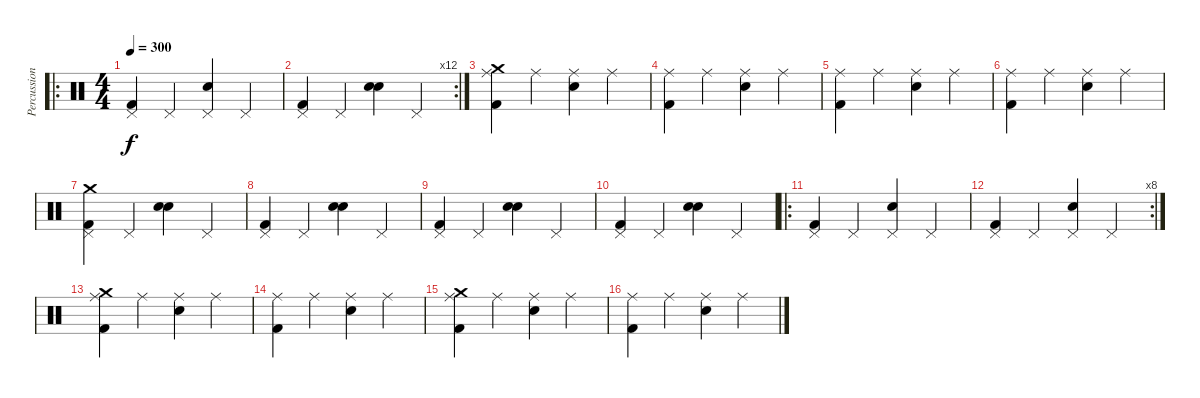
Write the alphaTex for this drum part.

\track ("Percussion" "Percussion") {instrument percussion}
\staff {score}
\articulation defaults
\ro
\ts (4 4)
\tempo 300
\clef neutral
\ks c
("Kick (hit) 2" "Pedal Hi-Hat (hit)").4{dy f} "Pedal Hi-Hat (hit)".4 ("Snare (hit) 2" "Pedal Hi-Hat (hit)").4 "Pedal Hi-Hat (hit)".4 |
\rc 12
("Kick (hit) 2" "Pedal Hi-Hat (hit)").4 "Pedal Hi-Hat (hit)".4 ("Snare (hit) 2" "Electric Snare (hit)").4 "Pedal Hi-Hat (hit)".4 |
("Crash medium (hit)" "Kick (hit) 2" "Ride (middle)").4 "Ride (middle)".4 ("Snare (hit) 2" "Ride (middle)").4 "Ride (middle)".4 |
("Kick (hit) 2" "Ride (middle)").4 "Ride (middle)".4 ("Snare (hit) 2" "Ride (middle)").4 "Ride (middle)".4 |
("Kick (hit) 2" "Ride (middle)").4 "Ride (middle)".4 ("Snare (hit) 2" "Ride (middle)").4 "Ride (middle)".4 |
("Kick (hit) 2" "Ride (middle)").4 "Ride (middle)".4 ("Snare (hit) 2" "Ride (middle)").4 "Ride (middle)".4 |
("Crash medium (hit)" "Kick (hit) 2" "Pedal Hi-Hat (hit)").4 "Pedal Hi-Hat (hit)".4 ("Electric Snare (hit)" "Snare (hit) 2").4 "Pedal Hi-Hat (hit)".4 |
("Kick (hit) 2" "Pedal Hi-Hat (hit)").4 "Pedal Hi-Hat (hit)".4 ("Electric Snare (hit)" "Electric Snare (hit)").4 "Pedal Hi-Hat (hit)".4 |
("Kick (hit) 2" "Pedal Hi-Hat (hit)").4 "Pedal Hi-Hat (hit)".4 ("Electric Snare (hit)" "Electric Snare (hit)").4 "Pedal Hi-Hat (hit)".4 |
("Kick (hit) 2" "Pedal Hi-Hat (hit)").4 "Pedal Hi-Hat (hit)".4 ("Electric Snare (hit)" "Electric Snare (hit)").4 "Pedal Hi-Hat (hit)".4 |
\ro
("Kick (hit) 2" "Pedal Hi-Hat (hit)").4 "Pedal Hi-Hat (hit)".4 ("Electric Snare (hit)" "Pedal Hi-Hat (hit)").4 "Pedal Hi-Hat (hit)".4 |
\rc 8
("Kick (hit) 2" "Pedal Hi-Hat (hit)").4 "Pedal Hi-Hat (hit)".4 ("Electric Snare (hit)" "Pedal Hi-Hat (hit)").4 "Pedal Hi-Hat (hit)".4 |
("Crash medium (hit)" "Kick (hit) 2" "Ride (middle)").4 "Ride (middle)".4 ("Electric Snare (hit)" "Ride (middle)").4 "Ride (middle)".4 |
("Kick (hit) 2" "Ride (middle)").4 "Ride (middle)".4 ("Electric Snare (hit)" "Ride (middle)").4 "Ride (middle)".4 |
("Crash medium (hit)" "Kick (hit) 2" "Ride (middle)").4 "Ride (middle)".4 ("Electric Snare (hit)" "Ride (middle)").4 "Ride (middle)".4 |
("Kick (hit) 2" "Ride (middle)").4 "Ride (middle)".4 ("Electric Snare (hit)" "Ride (middle)").4 "Ride (middle)".4
